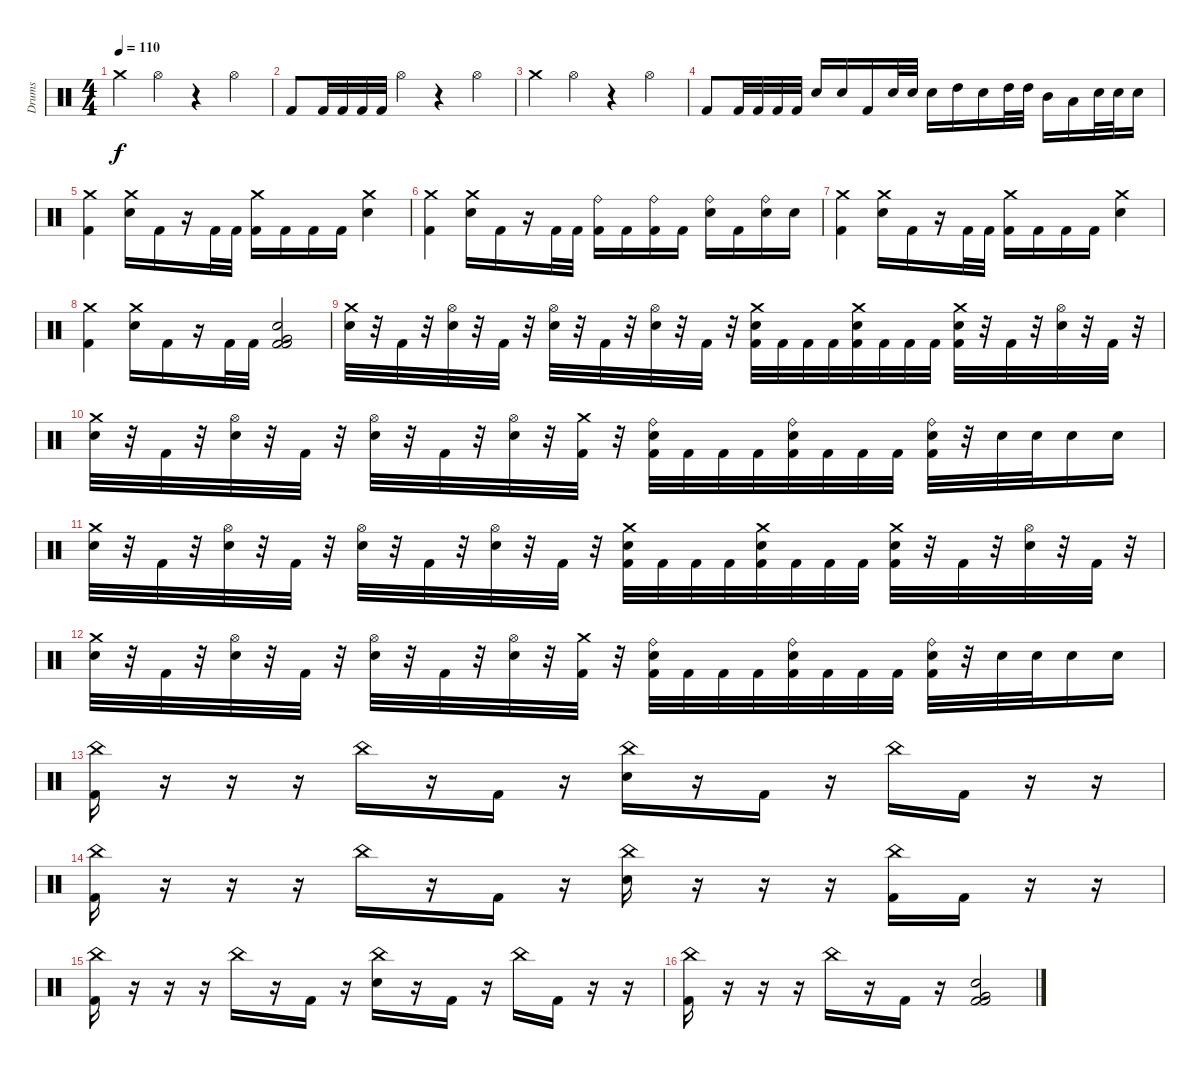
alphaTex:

\track ("Drums" "Drums") {instrument percussion}
\staff {score}
\articulation defaults
\ts (4 4)
\tempo 110
\clef neutral
\ks c "Crash medium (hit)".4{dy f} "Hi-Hat (open)".4
r.4 "Hi-Hat (open)".4 |
"Kick (hit) 2".8 "Kick (hit) 2".32 "Kick (hit) 2".32 "Kick (hit) 2".32 "Kick (hit) 2".32 "Hi-Hat (open)".4 r.4 "Hi-Hat (open)".4 |
"Crash medium (hit)".4 "Hi-Hat (open)".4 r.4 "Hi-Hat (open)".4 |
"Kick (hit) 2".8 "Kick (hit) 2".32 "Kick (hit) 2".32 "Kick (hit) 2".32 "Kick (hit) 2".32 "Electric Snare (hit)".16 "Electric Snare (hit)".16 "Kick (hit) 2".16 "Electric Snare (hit)".32 "Electric Snare (hit)".32 "Electric Snare (hit)".16 "High Tom (hit)".16 "Electric Snare (hit)".16 "High Tom (hit)".32 "High Tom (hit)".32 "Mid Tom (hit)".16 "Low Tom (hit)".16 "Electric Snare (hit)".32 "Electric Snare (hit)".32 "Electric Snare (hit)".16 |
("Crash medium (hit)" "Kick (hit) 2").4 ("Crash medium (hit)" "Electric Snare (hit)").16 "Kick (hit) 2".16 r.16 "Kick (hit) 2".32 "Kick (hit) 2".32 ("Crash medium (hit)" "Kick (hit) 2").16 "Kick (hit) 2".16 "Kick (hit) 2".16 "Kick (hit) 2".16 ("Crash medium (hit)" "Electric Snare (hit)").4 |
("Crash medium (hit)" "Kick (hit) 2").4 ("Crash medium (hit)" "Electric Snare (hit)").16 "Kick (hit) 2".16 r.16 "Kick (hit) 2".32 "Kick (hit) 2".32 ("Ride (bell)" "Kick (hit) 2").16 "Kick (hit) 2".16 ("Ride (bell)" "Kick (hit) 2").16 "Kick (hit) 2".16 ("Ride (bell)" "Electric Snare (hit)").16 "Kick (hit) 2".16 ("Ride (bell)" "Electric Snare (hit)").16 "Electric Snare (hit)".16 |
("Crash medium (hit)" "Kick (hit) 2").4 ("Crash medium (hit)" "Electric Snare (hit)").16 "Kick (hit) 2".16 r.16 "Kick (hit) 2".32 "Kick (hit) 2".32 ("Crash medium (hit)" "Kick (hit) 2").16 "Kick (hit) 2".16 "Kick (hit) 2".16 "Kick (hit) 2".16 ("Crash medium (hit)" "Electric Snare (hit)").4 |
("Crash medium (hit)" "Kick (hit) 2").4 ("Crash medium (hit)" "Electric Snare (hit)").16 "Kick (hit) 2".16 r.16 "Kick (hit) 2".32 "Kick (hit) 2".32 ("Electric Snare (hit)" "Very Low Tom (hit)" "Kick (hit) 2" "Kick (hit) 2").2 |
("Crash medium (hit)" "Electric Snare (hit)").32 r.32 "Kick (hit) 2".32 r.32 ("Hi-Hat (open)" "Electric Snare (hit)").32 r.32 "Kick (hit) 2".32 r.32 ("Hi-Hat (open)" "Electric Snare (hit)").32 r.32 "Kick (hit) 2".32 r.32 ("Hi-Hat (open)" "Electric Snare (hit)").32 r.32 "Kick (hit) 2".32 r.32 ("Crash medium (hit)" "Electric Snare (hit)" "Kick (hit) 2").32 "Kick (hit) 2".32 "Kick (hit) 2".32 "Kick (hit) 2".32 ("Crash medium (hit)" "Electric Snare (hit)" "Kick (hit) 2").32 "Kick (hit) 2".32 "Kick (hit) 2".32 "Kick (hit) 2".32 ("Crash medium (hit)" "Electric Snare (hit)" "Kick (hit) 2").32 r.32 "Kick (hit) 2".32 r.32 ("Hi-Hat (open)" "Electric Snare (hit)").32 r.32 "Kick (hit) 2".32 r.32 |
("Crash medium (hit)" "Electric Snare (hit)").32 r.32 "Kick (hit) 2".32 r.32 ("Hi-Hat (open)" "Electric Snare (hit)").32 r.32 "Kick (hit) 2".32 r.32 ("Hi-Hat (open)" "Electric Snare (hit)").32 r.32 "Kick (hit) 2".32 r.32 ("Hi-Hat (open)" "Electric Snare (hit)").32 r.32 ("Crash medium (hit)" "Kick (hit) 2").32 r.32 ("Ride (bell)" "Electric Snare (hit)" "Kick (hit) 2").32 "Kick (hit) 2".32 "Kick (hit) 2".32 "Kick (hit) 2".32 ("Ride (bell)" "Electric Snare (hit)" "Kick (hit) 2").32 "Kick (hit) 2".32 "Kick (hit) 2".32 "Kick (hit) 2".32 ("Ride (bell)" "Electric Snare (hit)" "Kick (hit) 2").32 r.32 "Electric Snare (hit)".32 "Electric Snare (hit)".32 "Electric Snare (hit)".16 "Electric Snare (hit)".16 |
("Crash medium (hit)" "Electric Snare (hit)").32 r.32 "Kick (hit) 2".32 r.32 ("Hi-Hat (open)" "Electric Snare (hit)").32 r.32 "Kick (hit) 2".32 r.32 ("Hi-Hat (open)" "Electric Snare (hit)").32 r.32 "Kick (hit) 2".32 r.32 ("Hi-Hat (open)" "Electric Snare (hit)").32 r.32 "Kick (hit) 2".32 r.32 ("Crash medium (hit)" "Electric Snare (hit)" "Kick (hit) 2").32 "Kick (hit) 2".32 "Kick (hit) 2".32 "Kick (hit) 2".32 ("Crash medium (hit)" "Electric Snare (hit)" "Kick (hit) 2").32 "Kick (hit) 2".32 "Kick (hit) 2".32 "Kick (hit) 2".32 ("Crash medium (hit)" "Electric Snare (hit)" "Kick (hit) 2").32 r.32 "Kick (hit) 2".32 r.32 ("Hi-Hat (open)" "Electric Snare (hit)").32 r.32 "Kick (hit) 2".32 r.32 |
("Crash medium (hit)" "Electric Snare (hit)").32 r.32 "Kick (hit) 2".32 r.32 ("Hi-Hat (open)" "Electric Snare (hit)").32 r.32 "Kick (hit) 2".32 r.32 ("Hi-Hat (open)" "Electric Snare (hit)").32 r.32 "Kick (hit) 2".32 r.32 ("Hi-Hat (open)" "Electric Snare (hit)").32 r.32 ("Crash medium (hit)" "Kick (hit) 2").32 r.32 ("Ride (bell)" "Electric Snare (hit)" "Kick (hit) 2").32 "Kick (hit) 2".32 "Kick (hit) 2".32 "Kick (hit) 2".32 ("Ride (bell)" "Electric Snare (hit)" "Kick (hit) 2").32 "Kick (hit) 2".32 "Kick (hit) 2".32 "Kick (hit) 2".32 ("Ride (bell)" "Electric Snare (hit)" "Kick (hit) 2").32 r.32 "Electric Snare (hit)".32 "Electric Snare (hit)".32 "Electric Snare (hit)".16 "Electric Snare (hit)".16 |
("China (hit)" "Kick (hit) 2").16 r.16 r.16 r.16 "China (hit)".16 r.16 "Kick (hit) 2".16 r.16 ("China (hit)" "Electric Snare (hit)").16 r.16 "Kick (hit) 2".16 r.16 "China (hit)".16 "Kick (hit) 2".16 r.16 r.16 |
("China (hit)" "Kick (hit) 2").16 r.16 r.16 r.16 "China (hit)".16 r.16 "Kick (hit) 2".16 r.16 ("China (hit)" "Electric Snare (hit)").16 r.16 r.16 r.16 ("China (hit)" "Kick (hit) 2").16 "Kick (hit) 2".16 r.16 r.16 |
("China (hit)" "Kick (hit) 2").16 r.16 r.16 r.16 "China (hit)".16 r.16 "Kick (hit) 2".16 r.16 ("China (hit)" "Electric Snare (hit)").16 r.16 "Kick (hit) 2".16 r.16 "China (hit)".16 "Kick (hit) 2".16 r.16 r.16 |
("China (hit)" "Kick (hit) 2").16 r.16 r.16 r.16 "China (hit)".16 r.16 "Kick (hit) 2".16 r.16 ("Electric Snare (hit)" "Very Low Tom (hit)" "Kick (hit) 2" "Kick (hit) 2").2
